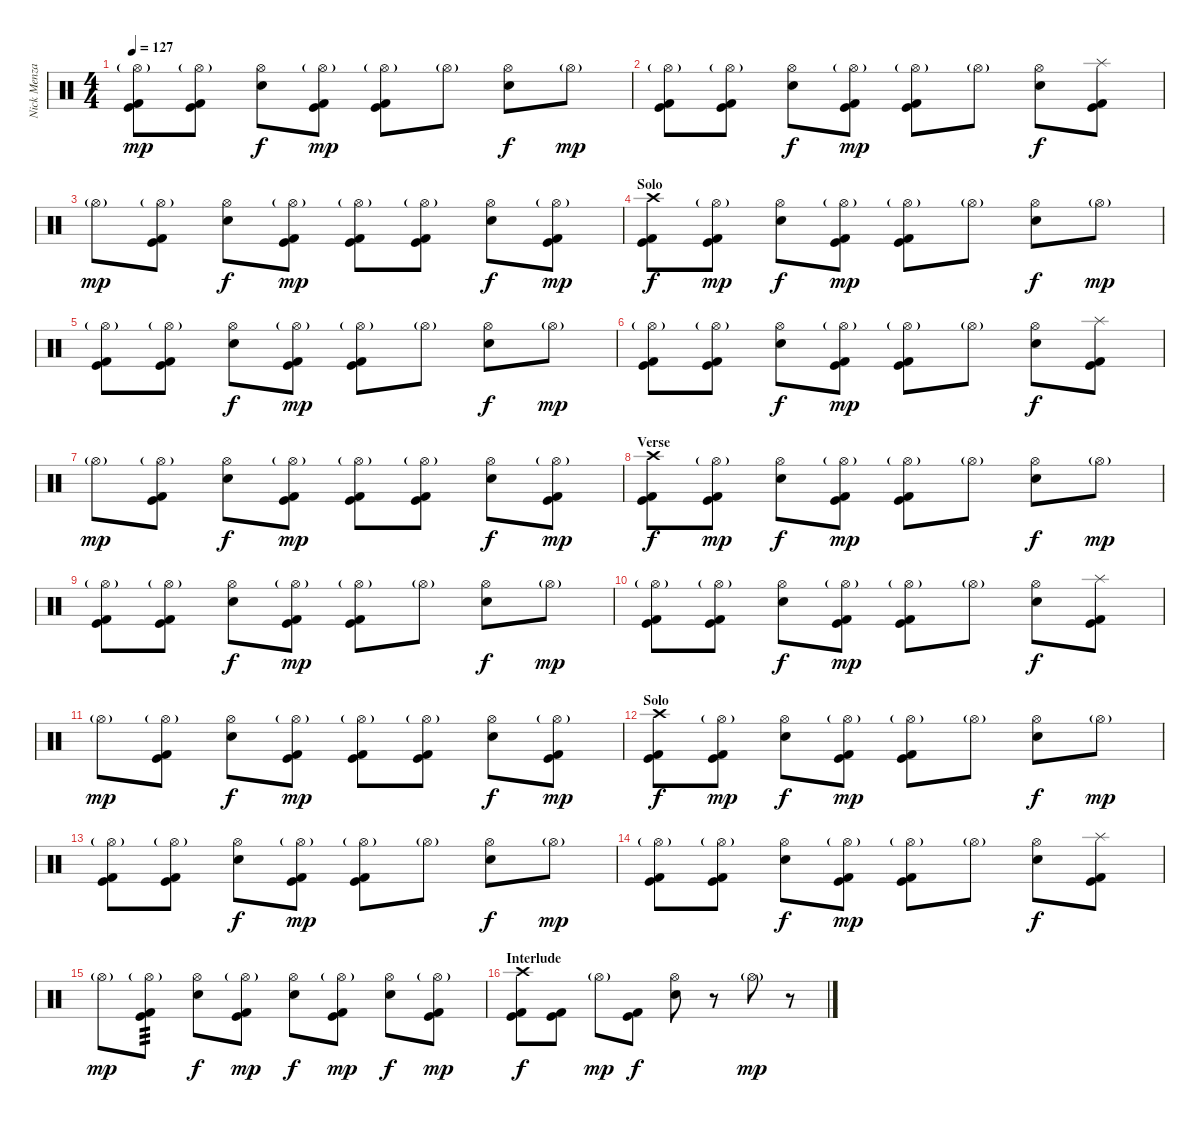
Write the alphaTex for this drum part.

\track ("Nick Menza (Drums)" "Nick Menza") {instrument percussion}
\staff {score}
\articulation defaults
\ts (4 4)
\tempo 127
\clef neutral
\ks c
("Hi-Hat (open)"{g} "Kick (hit)" "Kick (hit) 2").8{dy mp} ("Hi-Hat (open)"{g} "Kick (hit)" "Kick (hit) 2").8 ("Hi-Hat (open)" "Electric Snare (hit)").8{dy f} ("Hi-Hat (open)"{g} "Kick (hit)" "Kick (hit) 2").8{dy mp} ("Hi-Hat (open)"{g} "Kick (hit)" "Kick (hit) 2").8 "Hi-Hat (open)"{g}.8 ("Hi-Hat (open)" "Electric Snare (hit)").8{dy f} "Hi-Hat (open)"{g}.8{dy mp} |
("Hi-Hat (open)"{g} "Kick (hit)" "Kick (hit) 2").8 ("Hi-Hat (open)"{g} "Kick (hit)" "Kick (hit) 2").8 ("Hi-Hat (open)" "Electric Snare (hit)").8{dy f} ("Hi-Hat (open)"{g} "Kick (hit)" "Kick (hit) 2").8{dy mp} ("Hi-Hat (open)"{g} "Kick (hit)" "Kick (hit) 2").8 "Hi-Hat (open)"{g}.8 ("Hi-Hat (open)" "Electric Snare (hit)").8{dy f} ("Splash (hit)" "Kick (hit)" "Kick (hit) 2").8 |
"Hi-Hat (open)"{g}.8{dy mp} ("Hi-Hat (open)"{g} "Kick (hit)" "Kick (hit) 2").8 ("Hi-Hat (open)" "Electric Snare (hit)").8{dy f} ("Hi-Hat (open)"{g} "Kick (hit)" "Kick (hit) 2").8{dy mp} ("Hi-Hat (open)"{g} "Kick (hit)" "Kick (hit) 2").8 ("Hi-Hat (open)"{g} "Kick (hit)" "Kick (hit) 2").8 ("Hi-Hat (open)" "Electric Snare (hit)").8{dy f} ("Hi-Hat (open)"{g} "Kick (hit)" "Kick (hit) 2").8{dy mp} |
\section ("" "Solo")
("Crash high (hit)" "Kick (hit)" "Kick (hit) 2").8{dy f} ("Hi-Hat (open)"{g} "Kick (hit)" "Kick (hit) 2").8{dy mp} ("Hi-Hat (open)" "Electric Snare (hit)").8{dy f} ("Hi-Hat (open)"{g} "Kick (hit)" "Kick (hit) 2").8{dy mp} ("Hi-Hat (open)"{g} "Kick (hit)" "Kick (hit) 2").8 "Hi-Hat (open)"{g}.8 ("Hi-Hat (open)" "Electric Snare (hit)").8{dy f} "Hi-Hat (open)"{g}.8{dy mp} |
("Hi-Hat (open)"{g} "Kick (hit)" "Kick (hit) 2").8 ("Hi-Hat (open)"{g} "Kick (hit)" "Kick (hit) 2").8 ("Hi-Hat (open)" "Electric Snare (hit)").8{dy f} ("Hi-Hat (open)"{g} "Kick (hit)" "Kick (hit) 2").8{dy mp} ("Hi-Hat (open)"{g} "Kick (hit)" "Kick (hit) 2").8 "Hi-Hat (open)"{g}.8 ("Hi-Hat (open)" "Electric Snare (hit)").8{dy f} "Hi-Hat (open)"{g}.8{dy mp} |
("Hi-Hat (open)"{g} "Kick (hit)" "Kick (hit) 2").8 ("Hi-Hat (open)"{g} "Kick (hit)" "Kick (hit) 2").8 ("Hi-Hat (open)" "Electric Snare (hit)").8{dy f} ("Hi-Hat (open)"{g} "Kick (hit)" "Kick (hit) 2").8{dy mp} ("Hi-Hat (open)"{g} "Kick (hit)" "Kick (hit) 2").8 "Hi-Hat (open)"{g}.8 ("Hi-Hat (open)" "Electric Snare (hit)").8{dy f} ("Splash (hit)" "Kick (hit)" "Kick (hit) 2").8 |
"Hi-Hat (open)"{g}.8{dy mp} ("Hi-Hat (open)"{g} "Kick (hit)" "Kick (hit) 2").8 ("Hi-Hat (open)" "Electric Snare (hit)").8{dy f} ("Hi-Hat (open)"{g} "Kick (hit)" "Kick (hit) 2").8{dy mp} ("Hi-Hat (open)"{g} "Kick (hit)" "Kick (hit) 2").8 ("Hi-Hat (open)"{g} "Kick (hit)" "Kick (hit) 2").8 ("Hi-Hat (open)" "Electric Snare (hit)").8{dy f} ("Hi-Hat (open)"{g} "Kick (hit)" "Kick (hit) 2").8{dy mp} |
\section ("" "Verse")
("Crash high (hit)" "Kick (hit)" "Kick (hit) 2").8{dy f} ("Hi-Hat (open)"{g} "Kick (hit)" "Kick (hit) 2").8{dy mp} ("Hi-Hat (open)" "Electric Snare (hit)").8{dy f} ("Hi-Hat (open)"{g} "Kick (hit)" "Kick (hit) 2").8{dy mp} ("Hi-Hat (open)"{g} "Kick (hit)" "Kick (hit) 2").8 "Hi-Hat (open)"{g}.8 ("Hi-Hat (open)" "Electric Snare (hit)").8{dy f} "Hi-Hat (open)"{g}.8{dy mp} |
("Hi-Hat (open)"{g} "Kick (hit)" "Kick (hit) 2").8 ("Hi-Hat (open)"{g} "Kick (hit)" "Kick (hit) 2").8 ("Hi-Hat (open)" "Electric Snare (hit)").8{dy f} ("Hi-Hat (open)"{g} "Kick (hit)" "Kick (hit) 2").8{dy mp} ("Hi-Hat (open)"{g} "Kick (hit)" "Kick (hit) 2").8 "Hi-Hat (open)"{g}.8 ("Hi-Hat (open)" "Electric Snare (hit)").8{dy f} "Hi-Hat (open)"{g}.8{dy mp} |
("Hi-Hat (open)"{g} "Kick (hit)" "Kick (hit) 2").8 ("Hi-Hat (open)"{g} "Kick (hit)" "Kick (hit) 2").8 ("Hi-Hat (open)" "Electric Snare (hit)").8{dy f} ("Hi-Hat (open)"{g} "Kick (hit)" "Kick (hit) 2").8{dy mp} ("Hi-Hat (open)"{g} "Kick (hit)" "Kick (hit) 2").8 "Hi-Hat (open)"{g}.8 ("Hi-Hat (open)" "Electric Snare (hit)").8{dy f} ("Splash (hit)" "Kick (hit)" "Kick (hit) 2").8 |
"Hi-Hat (open)"{g}.8{dy mp} ("Hi-Hat (open)"{g} "Kick (hit)" "Kick (hit) 2").8 ("Hi-Hat (open)" "Electric Snare (hit)").8{dy f} ("Hi-Hat (open)"{g} "Kick (hit)" "Kick (hit) 2").8{dy mp} ("Hi-Hat (open)"{g} "Kick (hit)" "Kick (hit) 2").8 ("Hi-Hat (open)"{g} "Kick (hit)" "Kick (hit) 2").8 ("Hi-Hat (open)" "Electric Snare (hit)").8{dy f} ("Hi-Hat (open)"{g} "Kick (hit)" "Kick (hit) 2").8{dy mp} |
\section ("" "Solo")
("Crash high (hit)" "Kick (hit)" "Kick (hit) 2").8{dy f} ("Hi-Hat (open)"{g} "Kick (hit)" "Kick (hit) 2").8{dy mp} ("Hi-Hat (open)" "Electric Snare (hit)").8{dy f} ("Hi-Hat (open)"{g} "Kick (hit)" "Kick (hit) 2").8{dy mp} ("Hi-Hat (open)"{g} "Kick (hit)" "Kick (hit) 2").8 "Hi-Hat (open)"{g}.8 ("Hi-Hat (open)" "Electric Snare (hit)").8{dy f} "Hi-Hat (open)"{g}.8{dy mp} |
("Hi-Hat (open)"{g} "Kick (hit)" "Kick (hit) 2").8 ("Hi-Hat (open)"{g} "Kick (hit)" "Kick (hit) 2").8 ("Hi-Hat (open)" "Electric Snare (hit)").8{dy f} ("Hi-Hat (open)"{g} "Kick (hit)" "Kick (hit) 2").8{dy mp} ("Hi-Hat (open)"{g} "Kick (hit)" "Kick (hit) 2").8 "Hi-Hat (open)"{g}.8 ("Hi-Hat (open)" "Electric Snare (hit)").8{dy f} "Hi-Hat (open)"{g}.8{dy mp} |
("Hi-Hat (open)"{g} "Kick (hit)" "Kick (hit) 2").8 ("Hi-Hat (open)"{g} "Kick (hit)" "Kick (hit) 2").8 ("Hi-Hat (open)" "Electric Snare (hit)").8{dy f} ("Hi-Hat (open)"{g} "Kick (hit)" "Kick (hit) 2").8{dy mp} ("Hi-Hat (open)"{g} "Kick (hit)" "Kick (hit) 2").8 "Hi-Hat (open)"{g}.8 ("Hi-Hat (open)" "Electric Snare (hit)").8{dy f} ("Splash (hit)" "Kick (hit)" "Kick (hit) 2").8 |
"Hi-Hat (open)"{g}.8{dy mp} ("Hi-Hat (open)"{g} "Kick (hit)" "Kick (hit) 2").8{tp 3} ("Hi-Hat (open)" "Electric Snare (hit)").8{dy f} ("Hi-Hat (open)"{g} "Kick (hit)" "Kick (hit) 2").8{dy mp} ("Hi-Hat (open)" "Electric Snare (hit)").8{dy f} ("Hi-Hat (open)"{g} "Kick (hit)" "Kick (hit) 2").8{dy mp} ("Hi-Hat (open)" "Electric Snare (hit)").8{dy f} ("Hi-Hat (open)"{g} "Kick (hit)" "Kick (hit) 2").8{dy mp} |
\section ("" "Interlude")
("Crash high (hit)" "Kick (hit)" "Kick (hit) 2").8{dy f} ("Kick (hit)" "Kick (hit) 2").8 "Hi-Hat (open)"{g}.8{dy mp} ("Kick (hit)" "Kick (hit) 2").8{dy f} ("Hi-Hat (open)" "Electric Snare (hit)").8 r.8 "Hi-Hat (open)"{g}.8{dy mp} r.8
